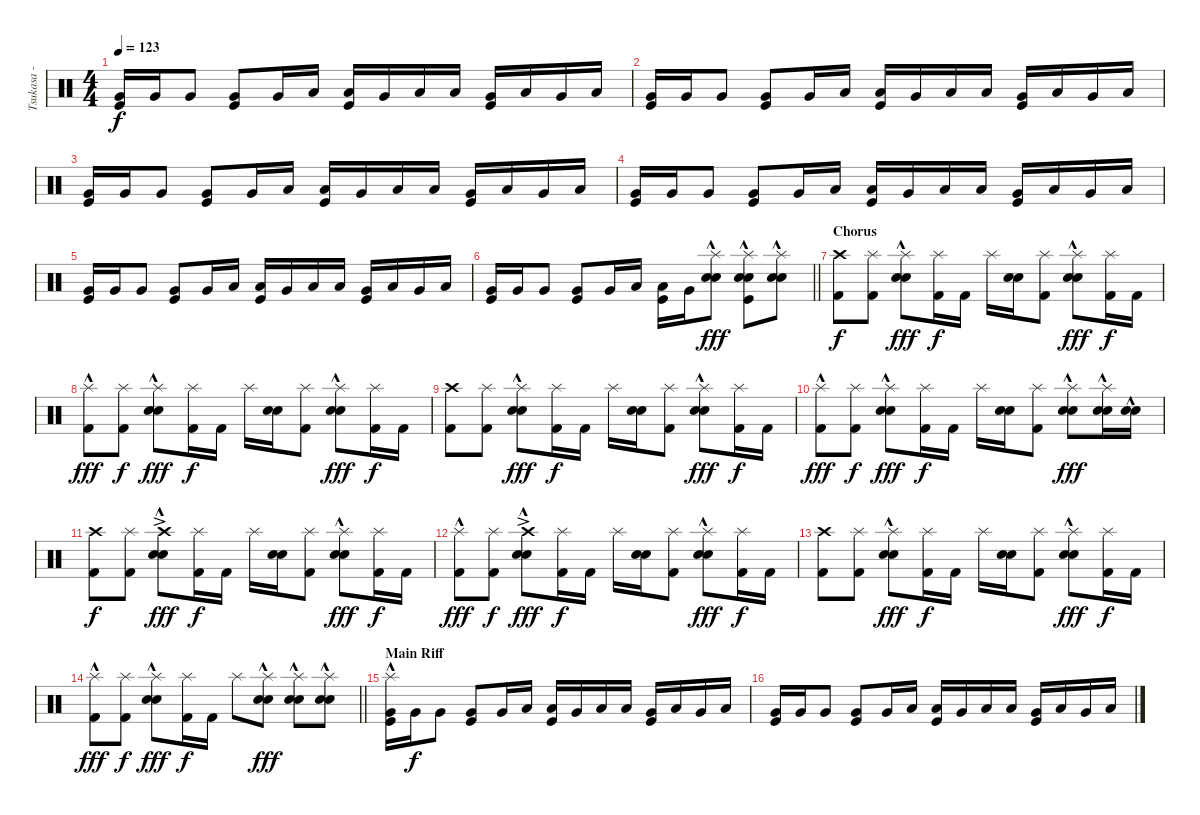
\track ("Tsukasa - Drums" "Tsukasa - ") {instrument percussion}
\staff {score}
\articulation defaults
\ts (4 4)
\tempo 123
\clef neutral
\ks c
("Very Low Tom (hit)" "Kick (hit)").16{dy f} "Very Low Tom (hit)".16 "Very Low Tom (hit)".8 ("Very Low Tom (hit)" "Kick (hit)").8 "Very Low Tom (hit)".16 "Low Tom (hit)".16 ("Low Tom (hit)" "Kick (hit)").16 "Very Low Tom (hit)".16 "Low Floor Tom (hit)".16 "Low Floor Tom (hit)".16 ("Very Low Tom (hit)" "Kick (hit)").16 "Low Floor Tom (hit)".16 "Very Low Tom (hit)".16 "Low Floor Tom (hit)".16 |
("Very Low Tom (hit)" "Kick (hit)").16 "Very Low Tom (hit)".16 "Very Low Tom (hit)".8 ("Very Low Tom (hit)" "Kick (hit)").8 "Very Low Tom (hit)".16 "Low Tom (hit)".16 ("Low Tom (hit)" "Kick (hit)").16 "Very Low Tom (hit)".16 "Low Floor Tom (hit)".16 "Low Floor Tom (hit)".16 ("Very Low Tom (hit)" "Kick (hit)").16 "Low Floor Tom (hit)".16 "Very Low Tom (hit)".16 "Low Floor Tom (hit)".16 |
("Very Low Tom (hit)" "Kick (hit)").16 "Very Low Tom (hit)".16 "Very Low Tom (hit)".8 ("Very Low Tom (hit)" "Kick (hit)").8 "Very Low Tom (hit)".16 "Low Tom (hit)".16 ("Low Tom (hit)" "Kick (hit)").16 "Very Low Tom (hit)".16 "Low Floor Tom (hit)".16 "Low Floor Tom (hit)".16 ("Very Low Tom (hit)" "Kick (hit)").16 "Low Floor Tom (hit)".16 "Very Low Tom (hit)".16 "Low Floor Tom (hit)".16 |
("Very Low Tom (hit)" "Kick (hit)").16 "Very Low Tom (hit)".16 "Very Low Tom (hit)".8 ("Very Low Tom (hit)" "Kick (hit)").8 "Very Low Tom (hit)".16 "Low Tom (hit)".16 ("Low Tom (hit)" "Kick (hit)").16 "Very Low Tom (hit)".16 "Low Floor Tom (hit)".16 "Low Floor Tom (hit)".16 ("Very Low Tom (hit)" "Kick (hit)").16 "Low Floor Tom (hit)".16 "Very Low Tom (hit)".16 "Low Floor Tom (hit)".16 |
("Very Low Tom (hit)" "Kick (hit)").16 "Very Low Tom (hit)".16 "Very Low Tom (hit)".8 ("Very Low Tom (hit)" "Kick (hit)").8 "Very Low Tom (hit)".16 "Low Tom (hit)".16 ("Low Tom (hit)" "Kick (hit)").16 "Very Low Tom (hit)".16 "Low Floor Tom (hit)".16 "Low Floor Tom (hit)".16 ("Very Low Tom (hit)" "Kick (hit)").16 "Low Floor Tom (hit)".16 "Very Low Tom (hit)".16 "Low Floor Tom (hit)".16 |
\barLineRight lightlight
("Very Low Tom (hit)" "Kick (hit)").16 "Very Low Tom (hit)".16 "Very Low Tom (hit)".8 ("Very Low Tom (hit)" "Kick (hit)").8 "Very Low Tom (hit)".16 "Low Tom (hit)".16 ("Low Tom (hit)" "Kick (hit)").16 "Very Low Tom (hit)".16 ("Splash (hit)" "Electric Snare (hit)"{hac} "Snare (hit) 2").8{dy fff} ("Splash (hit)" "Electric Snare (hit)"{hac} "Snare (hit) 2" "Kick (hit)").8 ("Splash (hit)" "Electric Snare (hit)"{hac} "Snare (hit) 2").8 |
\section ("" "Chorus")
("Crash high (hit)" "Kick (hit) 2").8{dy f} ("Splash (hit)" "Kick (hit) 2").8 ("Splash (hit)" "Electric Snare (hit)"{hac} "Snare (hit) 2").8{dy fff} ("Splash (hit)" "Kick (hit) 2").16{dy f} "Kick (hit) 2".16 "Splash (hit)".16 ("Electric Snare (hit)" "Snare (hit) 2").16 ("Splash (hit)" "Kick (hit) 2").8 ("Splash (hit)" "Electric Snare (hit)"{hac} "Snare (hit) 2").8{dy fff} ("Splash (hit)" "Kick (hit) 2").16{dy f} "Kick (hit) 2".16 |
("Splash (hit)"{hac} "Kick (hit) 2").8{dy fff} ("Splash (hit)" "Kick (hit) 2").8{dy f} ("Splash (hit)" "Electric Snare (hit)"{hac} "Snare (hit) 2").8{dy fff} ("Splash (hit)" "Kick (hit) 2").16{dy f} "Kick (hit) 2".16 "Splash (hit)".16 ("Electric Snare (hit)" "Snare (hit) 2").16 ("Splash (hit)" "Kick (hit) 2").8 ("Splash (hit)" "Electric Snare (hit)"{hac} "Snare (hit) 2").8{dy fff} ("Splash (hit)" "Kick (hit) 2").16{dy f} "Kick (hit) 2".16 |
("Crash high (hit)" "Kick (hit) 2").8 ("Splash (hit)" "Kick (hit) 2").8 ("Splash (hit)" "Electric Snare (hit)"{hac} "Snare (hit) 2").8{dy fff} ("Splash (hit)" "Kick (hit) 2").16{dy f} "Kick (hit) 2".16 "Splash (hit)".16 ("Electric Snare (hit)" "Snare (hit) 2").16 ("Splash (hit)" "Kick (hit) 2").8 ("Splash (hit)" "Electric Snare (hit)"{hac} "Snare (hit) 2").8{dy fff} ("Splash (hit)" "Kick (hit) 2").16{dy f} "Kick (hit) 2".16 |
("Splash (hit)"{hac} "Kick (hit) 2").8{dy fff} ("Splash (hit)" "Kick (hit) 2").8{dy f} ("Splash (hit)" "Electric Snare (hit)"{hac} "Snare (hit) 2").8{dy fff} ("Splash (hit)" "Kick (hit) 2").16{dy f} "Kick (hit) 2".16 "Splash (hit)".16 ("Electric Snare (hit)" "Snare (hit) 2").16 ("Splash (hit)" "Kick (hit) 2").8 ("Splash (hit)" "Electric Snare (hit)"{hac} "Snare (hit) 2").8{dy fff} ("Splash (hit)" "Electric Snare (hit)"{hac} "Snare (hit) 2").16 ("Electric Snare (hit)"{hac} "Snare (hit) 2").16 |
("Crash high (hit)" "Kick (hit) 2").8{dy f} ("Splash (hit)" "Kick (hit) 2").8 ("Crash high (hit)"{ac} "Electric Snare (hit)"{hac} "Snare (hit) 2").8{dy fff} ("Splash (hit)" "Kick (hit) 2").16{dy f} "Kick (hit) 2".16 "Splash (hit)".16 ("Electric Snare (hit)" "Snare (hit) 2").16 ("Splash (hit)" "Kick (hit) 2").8 ("Splash (hit)" "Electric Snare (hit)"{hac} "Snare (hit) 2").8{dy fff} ("Splash (hit)" "Kick (hit) 2").16{dy f} "Kick (hit) 2".16 |
("Splash (hit)"{hac} "Kick (hit) 2").8{dy fff} ("Splash (hit)" "Kick (hit) 2").8{dy f} ("Crash high (hit)"{ac} "Electric Snare (hit)"{hac} "Snare (hit) 2").8{dy fff} ("Splash (hit)" "Kick (hit) 2").16{dy f} "Kick (hit) 2".16 "Splash (hit)".16 ("Electric Snare (hit)" "Snare (hit) 2").16 ("Splash (hit)" "Kick (hit) 2").8 ("Splash (hit)" "Electric Snare (hit)"{hac} "Snare (hit) 2").8{dy fff} ("Splash (hit)" "Kick (hit) 2").16{dy f} "Kick (hit) 2".16 |
("Crash high (hit)" "Kick (hit) 2").8 ("Splash (hit)" "Kick (hit) 2").8 ("Splash (hit)" "Electric Snare (hit)"{hac} "Snare (hit) 2").8{dy fff} ("Splash (hit)" "Kick (hit) 2").16{dy f} "Kick (hit) 2".16 "Splash (hit)".16 ("Electric Snare (hit)" "Snare (hit) 2").16 ("Splash (hit)" "Kick (hit) 2").8 ("Splash (hit)" "Electric Snare (hit)"{hac} "Snare (hit) 2").8{dy fff} ("Splash (hit)" "Kick (hit) 2").16{dy f} "Kick (hit) 2".16 |
\barLineRight lightlight
("Splash (hit)"{hac} "Kick (hit) 2").8{dy fff} ("Splash (hit)" "Kick (hit) 2").8{dy f} ("Splash (hit)" "Electric Snare (hit)"{hac} "Snare (hit) 2").8{dy fff} ("Splash (hit)" "Kick (hit) 2").16{dy f} "Kick (hit) 2".16 "Splash (hit)".8 ("Splash (hit)" "Electric Snare (hit)"{hac} "Snare (hit) 2").8{dy fff} ("Splash (hit)" "Electric Snare (hit)"{hac} "Snare (hit) 2").8 ("Splash (hit)" "Electric Snare (hit)"{hac} "Snare (hit) 2").8 |
\section ("" "Main Riff")
("Splash (hit)"{hac} "Very Low Tom (hit)" "Kick (hit)").16 "Very Low Tom (hit)".16{dy f} "Very Low Tom (hit)".8 ("Very Low Tom (hit)" "Kick (hit)").8 "Very Low Tom (hit)".16 "Low Tom (hit)".16 ("Low Tom (hit)" "Kick (hit)").16 "Very Low Tom (hit)".16 "Low Floor Tom (hit)".16 "Low Floor Tom (hit)".16 ("Very Low Tom (hit)" "Kick (hit)").16 "Low Floor Tom (hit)".16 "Very Low Tom (hit)".16 "Low Floor Tom (hit)".16 |
("Very Low Tom (hit)" "Kick (hit)").16 "Very Low Tom (hit)".16 "Very Low Tom (hit)".8 ("Very Low Tom (hit)" "Kick (hit)").8 "Very Low Tom (hit)".16 "Low Tom (hit)".16 ("Low Tom (hit)" "Kick (hit)").16 "Very Low Tom (hit)".16 "Low Floor Tom (hit)".16 "Low Floor Tom (hit)".16 ("Very Low Tom (hit)" "Kick (hit)").16 "Low Floor Tom (hit)".16 "Very Low Tom (hit)".16 "Low Floor Tom (hit)".16
